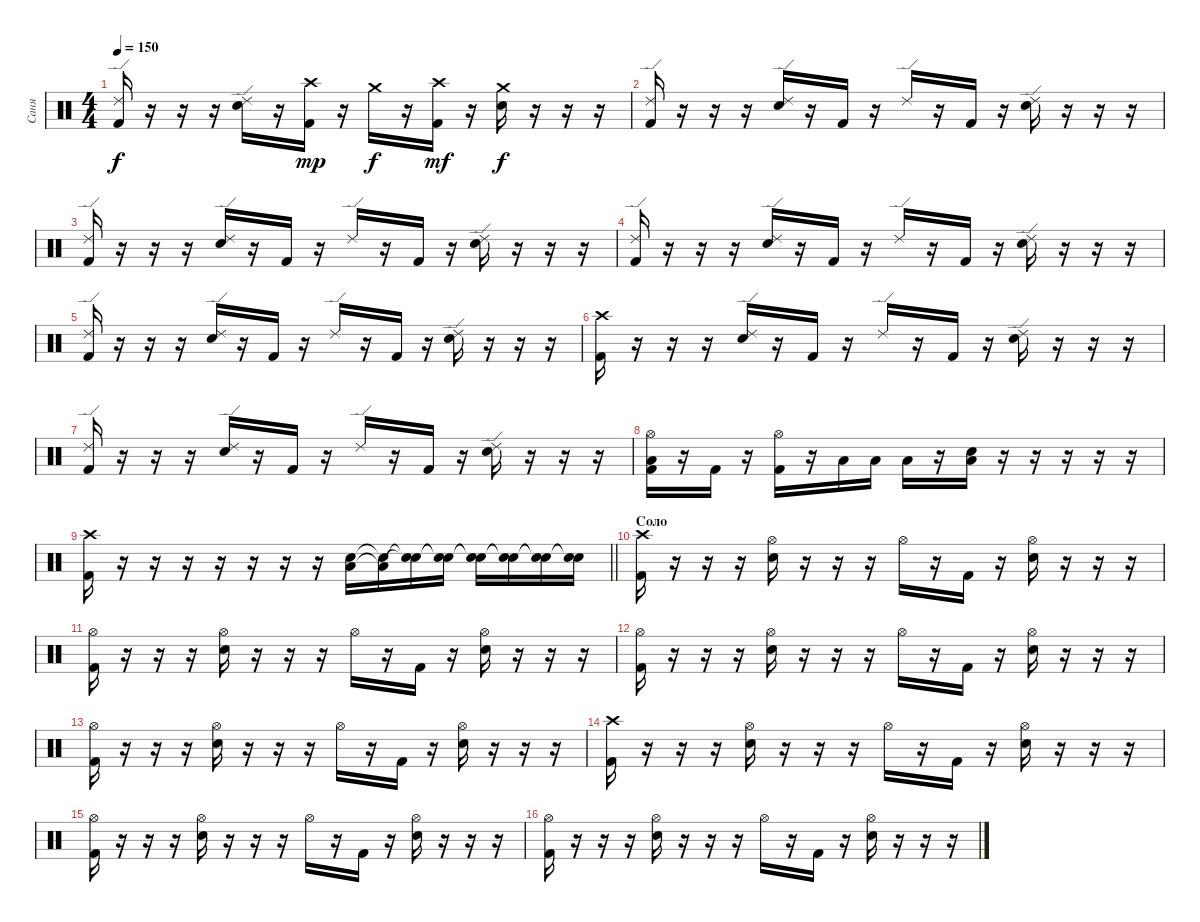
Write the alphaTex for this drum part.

\track ("Саня" "Саня") {instrument percussion}
\staff {score}
\articulation defaults
\ts (4 4)
\tempo 150
\clef neutral
\ks c
("Kick (hit) 2" "Ride (edge) 2").16{dy f} r.16 r.16 r.16 ("Snare (hit) 2" "Ride (edge) 2").16 r.16 ("Kick (hit) 2" "Crash high (hit)").16{dy mp} r.16 "Crash medium (hit)".16{dy f} r.16 ("Kick (hit) 2" "Crash high (hit)").16{dy mf} r.16 ("Snare (hit) 2" "Crash medium (hit)").16{dy f} r.16 r.16 r.16 |
("Kick (hit) 2" "Ride (edge) 2").16 r.16 r.16 r.16 ("Snare (hit) 2" "Ride (edge) 2").16 r.16 "Kick (hit) 2".16 r.16 "Ride (edge) 2".16 r.16 "Kick (hit) 2".16 r.16 ("Snare (hit) 2" "Ride (edge) 2").16 r.16 r.16 r.16 |
("Kick (hit) 2" "Ride (edge) 2").16 r.16 r.16 r.16 ("Snare (hit) 2" "Ride (edge) 2").16 r.16 "Kick (hit) 2".16 r.16 "Ride (edge) 2".16 r.16 "Kick (hit) 2".16 r.16 ("Snare (hit) 2" "Ride (edge) 2").16 r.16 r.16 r.16 |
("Kick (hit) 2" "Ride (edge) 2").16 r.16 r.16 r.16 ("Snare (hit) 2" "Ride (edge) 2").16 r.16 "Kick (hit) 2".16 r.16 "Ride (edge) 2".16 r.16 "Kick (hit) 2".16 r.16 ("Snare (hit) 2" "Ride (edge) 2").16 r.16 r.16 r.16 |
("Kick (hit) 2" "Ride (edge) 2").16 r.16 r.16 r.16 ("Snare (hit) 2" "Ride (edge) 2").16 r.16 "Kick (hit) 2".16 r.16 "Ride (edge) 2".16 r.16 "Kick (hit) 2".16 r.16 ("Snare (hit) 2" "Ride (edge) 2").16 r.16 r.16 r.16 |
("Kick (hit) 2" "Crash high (hit)").16 r.16 r.16 r.16 ("Snare (hit) 2" "Ride (edge) 2").16 r.16 "Kick (hit) 2".16 r.16 "Ride (edge) 2".16 r.16 "Kick (hit) 2".16 r.16 ("Snare (hit) 2" "Ride (edge) 2").16 r.16 r.16 r.16 |
("Kick (hit) 2" "Ride (edge) 2").16 r.16 r.16 r.16 ("Snare (hit) 2" "Ride (edge) 2").16 r.16 "Kick (hit) 2".16 r.16 "Ride (edge) 2".16 r.16 "Kick (hit) 2".16 r.16 ("Snare (hit) 2" "Ride (edge) 2").16 r.16 r.16 r.16 |
("Low Floor Tom (hit)" "Hi-Hat (open)" "Kick (hit) 2").16 r.16 "Kick (hit) 2".16 r.16 ("Hi-Hat (open)" "Kick (hit) 2").16 r.16 "Low Floor Tom (hit)".16 "Low Floor Tom (hit)".16 "Low Floor Tom (hit)".16 r.16 ("Low Floor Tom (hit)" "Snare (hit) 2").16 r.16 r.16 r.16 r.16 r.16 |
\barLineRight lightlight
("Kick (hit) 2" "Crash high (hit)").16 r.16 r.16 r.16 r.16 r.16 r.16 r.16 ("Low Floor Tom (hit)" "Snare (hit) 2").16 ("Low Floor Tom (hit)"{t} "Snare (hit) 2"{t}).16 ("Snare (hit)"{t} "Snare (hit)"{t}).16 ("Snare (hit)"{t} "Snare (hit)"{t}).16 ("Snare (hit)"{t} "Snare (hit)"{t}).16 ("Snare (hit)"{t} "Snare (hit)"{t}).16 ("Snare (hit)"{t} "Snare (hit)"{t}).16 ("Snare (hit)"{t} "Snare (hit)"{t}).16 |
\section ("" "Соло")
("Kick (hit) 2" "Crash high (hit)").16 r.16 r.16 r.16 ("Snare (hit) 2" "Hi-Hat (open)").16 r.16 r.16 r.16 "Hi-Hat (open)".16 r.16 "Kick (hit) 2".16 r.16 ("Snare (hit) 2" "Hi-Hat (open)").16 r.16 r.16 r.16 |
("Kick (hit) 2" "Hi-Hat (open)").16 r.16 r.16 r.16 ("Snare (hit) 2" "Hi-Hat (open)").16 r.16 r.16 r.16 "Hi-Hat (open)".16 r.16 "Kick (hit) 2".16 r.16 ("Snare (hit) 2" "Hi-Hat (open)").16 r.16 r.16 r.16 |
("Kick (hit) 2" "Hi-Hat (open)").16 r.16 r.16 r.16 ("Snare (hit) 2" "Hi-Hat (open)").16 r.16 r.16 r.16 "Hi-Hat (open)".16 r.16 "Kick (hit) 2".16 r.16 ("Snare (hit) 2" "Hi-Hat (open)").16 r.16 r.16 r.16 |
("Kick (hit) 2" "Hi-Hat (open)").16 r.16 r.16 r.16 ("Snare (hit) 2" "Hi-Hat (open)").16 r.16 r.16 r.16 "Hi-Hat (open)".16 r.16 "Kick (hit) 2".16 r.16 ("Snare (hit) 2" "Hi-Hat (open)").16 r.16 r.16 r.16 |
("Kick (hit) 2" "Crash high (hit)").16 r.16 r.16 r.16 ("Snare (hit) 2" "Hi-Hat (open)").16 r.16 r.16 r.16 "Hi-Hat (open)".16 r.16 "Kick (hit) 2".16 r.16 ("Snare (hit) 2" "Hi-Hat (open)").16 r.16 r.16 r.16 |
("Kick (hit) 2" "Hi-Hat (open)").16 r.16 r.16 r.16 ("Snare (hit) 2" "Hi-Hat (open)").16 r.16 r.16 r.16 "Hi-Hat (open)".16 r.16 "Kick (hit) 2".16 r.16 ("Snare (hit) 2" "Hi-Hat (open)").16 r.16 r.16 r.16 |
("Kick (hit) 2" "Hi-Hat (open)").16 r.16 r.16 r.16 ("Snare (hit) 2" "Hi-Hat (open)").16 r.16 r.16 r.16 "Hi-Hat (open)".16 r.16 "Kick (hit) 2".16 r.16 ("Snare (hit) 2" "Hi-Hat (open)").16 r.16 r.16 r.16
